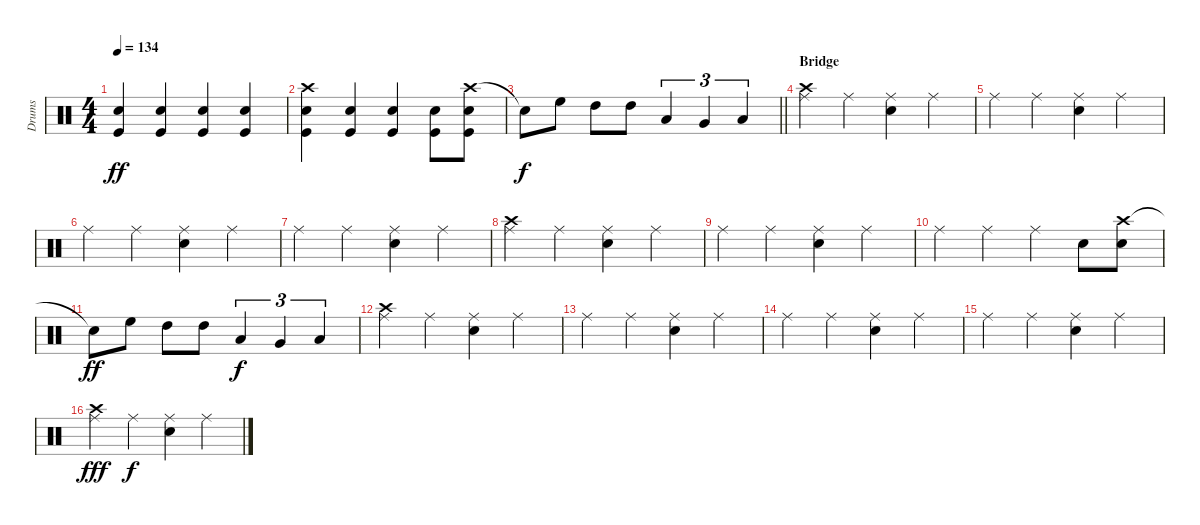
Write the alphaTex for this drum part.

\track ("Drums" "Drums") {instrument percussion}
\staff {score}
\articulation defaults
\ts (4 4)
\tempo 134
\clef neutral
\ks c
("Snare (hit) 2" "Kick (hit)").4{dy ff} ("Snare (hit) 2" "Kick (hit)").4 ("Snare (hit) 2" "Kick (hit)").4 ("Snare (hit) 2" "Kick (hit)").4 |
("Crash high (hit)" "Snare (hit) 2" "Kick (hit)").4 ("Snare (hit) 2" "Kick (hit)").4 ("Snare (hit) 2" "Kick (hit)").4 ("Snare (hit) 2" "Kick (hit)").8 ("Crash high (hit)" "Snare (hit) 2" "Kick (hit)").8 |
\barLineRight lightlight "Snare (hit) 2"{t}.8{dy f} "High Floor Tom (hit)".8 "High Tom (hit)".8 "High Tom (hit)".8 "Low Tom (hit)".4{tu (3 2)} "Very Low Tom (hit)".4{tu (3 2)} "Low Floor Tom (hit)".4{tu (3 2)}
|
\section ("" "Bridge")
("Crash high (hit)" "Ride (middle)").4 "Ride (middle)".4 ("Ride (middle)" "Snare (hit) 2").4 "Ride (middle)".4 |
"Ride (middle)".4 "Ride (middle)".4 ("Ride (middle)" "Snare (hit) 2").4 "Ride (middle)".4 |
"Ride (middle)".4 "Ride (middle)".4 ("Ride (middle)" "Snare (hit) 2").4 "Ride (middle)".4 |
"Ride (middle)".4 "Ride (middle)".4 ("Ride (middle)" "Snare (hit) 2").4 "Ride (middle)".4 |
("Crash high (hit)" "Ride (middle)").4 "Ride (middle)".4 ("Ride (middle)" "Snare (hit) 2").4 "Ride (middle)".4 |
"Ride (middle)".4 "Ride (middle)".4 ("Ride (middle)" "Snare (hit) 2").4 "Ride (middle)".4 |
"Ride (middle)".4 "Ride (middle)".4 "Ride (middle)".4 "Snare (hit) 2".8 ("Crash high (hit)" "Snare (hit) 2").8 |
"Snare (hit) 2"{t}.8{dy ff} "High Floor Tom (hit)".8 "High Tom (hit)".8 "High Tom (hit)".8 "Low Tom (hit)".4{tu (3 2) dy f} "Very Low Tom (hit)".4{tu (3 2)} "Low Floor Tom (hit)".4{tu (3 2)} |
("Crash high (hit)" "Ride (middle)").4 "Ride (middle)".4 ("Ride (middle)" "Snare (hit) 2").4 "Ride (middle)".4 |
"Ride (middle)".4 "Ride (middle)".4 ("Ride (middle)" "Snare (hit) 2").4 "Ride (middle)".4 |
"Ride (middle)".4 "Ride (middle)".4 ("Ride (middle)" "Snare (hit) 2").4 "Ride (middle)".4 |
"Ride (middle)".4 "Ride (middle)".4 ("Ride (middle)" "Snare (hit) 2").4 "Ride (middle)".4 |
("Crash high (hit)" "Ride (middle)").4{dy fff} "Ride (middle)".4{dy f} ("Ride (middle)" "Snare (hit) 2").4 "Ride (middle)".4
